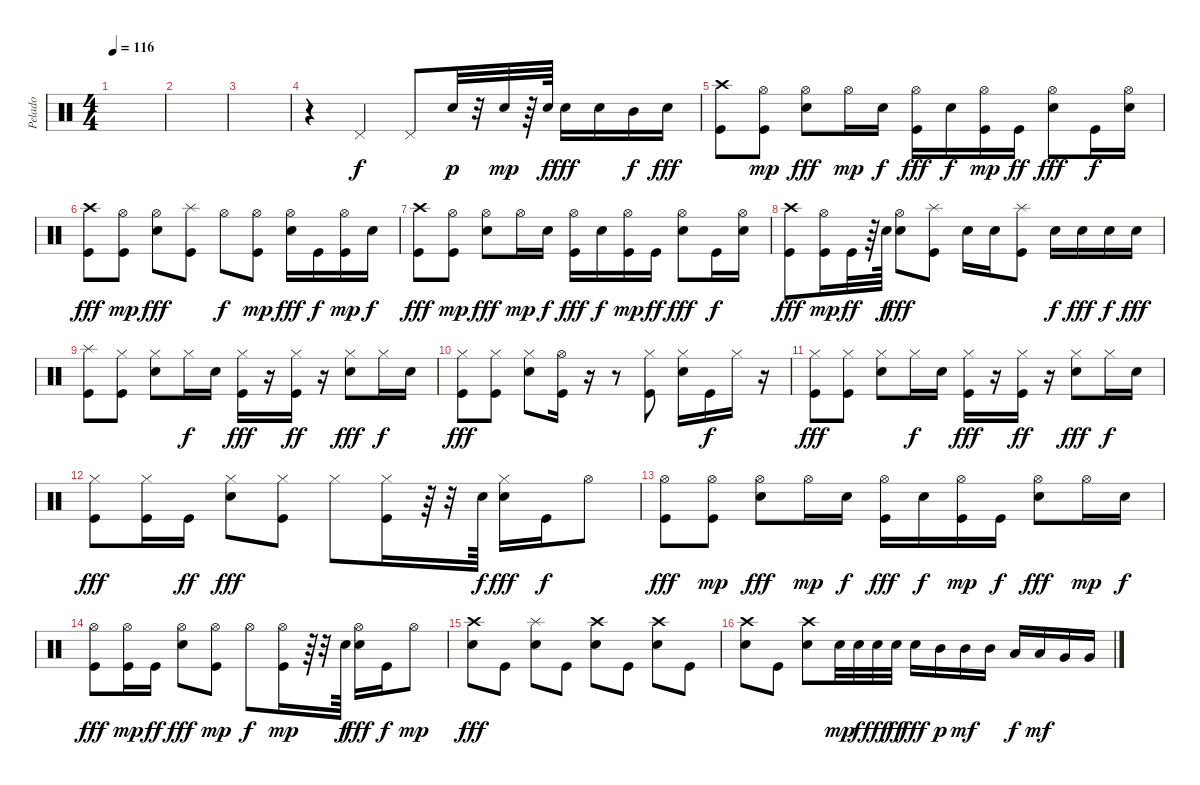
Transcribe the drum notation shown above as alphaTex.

\track ("Pelado" "Pelado") {instrument percussion}
\staff {score}
\articulation defaults
\ts (4 4)
\tempo 116
\clef neutral
\ks c
|
|
|
r.4 "Pedal Hi-Hat (hit)".4 "Pedal Hi-Hat (hit)".8 "Electric Snare (hit)".32{dy p} r.32 "Electric Snare (hit)".32{dy mp} r.64 "Electric Snare (hit)".64{dy f} "Electric Snare (hit)".16{dy fff} "Electric Snare (hit)".16 "Mid Tom (hit)".16{dy f} "Snare (hit) 2".16{dy fff} |
("Kick (hit)" "Crash high (hit)").8 ("Kick (hit)" "Hi-Hat (open)").8{dy mp} ("Electric Snare (hit)" "Hi-Hat (open)").8{dy fff} "Hi-Hat (open)".16{dy mp} "Electric Snare (hit)".16{dy f} ("Kick (hit)" "Hi-Hat (open)").16{dy fff} "Electric Snare (hit)".16{dy f} ("Kick (hit)" "Hi-Hat (open)").16{dy mp} "Kick (hit)".16{dy ff} ("Electric Snare (hit)" "Hi-Hat (open)").8{dy fff} "Kick (hit)".16{dy f} ("Electric Snare (hit)" "Hi-Hat (open)").16 |
("Kick (hit)" "Crash high (hit)").8{dy fff} ("Kick (hit)" "Hi-Hat (open)").8{dy mp} ("Electric Snare (hit)" "Hi-Hat (open)").8{dy fff} ("Kick (hit)" "Splash (hit)").8 "Hi-Hat (open)".8{dy f} ("Kick (hit)" "Hi-Hat (open)").8{dy mp} ("Electric Snare (hit)" "Hi-Hat (open)").16{dy fff} "Kick (hit)".16{dy f} ("Kick (hit)" "Hi-Hat (open)").16{dy mp} "Electric Snare (hit)".16{dy f} |
("Kick (hit)" "Crash high (hit)").8{dy fff} ("Kick (hit)" "Hi-Hat (open)").8{dy mp} ("Electric Snare (hit)" "Hi-Hat (open)").8{dy fff} "Hi-Hat (open)".16{dy mp} "Electric Snare (hit)".16{dy f} ("Kick (hit)" "Hi-Hat (open)").16{dy fff} "Electric Snare (hit)".16{dy f} ("Kick (hit)" "Hi-Hat (open)").16{dy mp} "Kick (hit)".16{dy ff} ("Electric Snare (hit)" "Hi-Hat (open)").8{dy fff} "Kick (hit)".16{dy f} ("Electric Snare (hit)" "Hi-Hat (open)").16 |
("Kick (hit)" "Crash high (hit)").8{dy fff} ("Kick (hit)" "Hi-Hat (open)").16{dy mp} "Kick (hit)".32{dy ff} r.64 "Electric Snare (hit)".64{dy f} ("Electric Snare (hit)" "Hi-Hat (open)").8{dy fff} ("Kick (hit)" "Splash (hit)").8 "Electric Snare (hit)".16 "Electric Snare (hit)".16 ("Kick (hit)" "Splash (hit)").8 "Electric Snare (hit)".16{dy f} "Electric Snare (hit)".16{dy fff} "Electric Snare (hit)".16{dy f} "Electric Snare (hit)".16{dy fff} |
("Kick (hit)" "Splash (hit)").8 ("Kick (hit)" "Hi-Hat (closed)").8 ("Electric Snare (hit)" "Hi-Hat (closed)").8 "Hi-Hat (closed)".16{dy f} "Electric Snare (hit)".16 ("Kick (hit)" "Hi-Hat (closed)").16{dy fff} r.16 ("Kick (hit)" "Hi-Hat (closed)").16{dy ff} r.16 ("Electric Snare (hit)" "Hi-Hat (closed)").8{dy fff} "Hi-Hat (closed)".16{dy f} "Electric Snare (hit)".16 |
("Kick (hit)" "Hi-Hat (closed)").8{dy fff} ("Kick (hit)" "Hi-Hat (closed)").8 ("Electric Snare (hit)" "Hi-Hat (closed)").8 ("Kick (hit)" "Hi-Hat (open)").16 r.16 r.8 ("Kick (hit)" "Hi-Hat (closed)").8 ("Electric Snare (hit)" "Hi-Hat (closed)").16 "Kick (hit)".16{dy f} "Hi-Hat (closed)".16 r.16 |
("Kick (hit)" "Hi-Hat (closed)").8{dy fff} ("Kick (hit)" "Hi-Hat (closed)").8 ("Electric Snare (hit)" "Hi-Hat (closed)").8 "Hi-Hat (closed)".16{dy f} "Electric Snare (hit)".16 ("Kick (hit)" "Hi-Hat (closed)").16{dy fff} r.16 ("Kick (hit)" "Hi-Hat (closed)").16{dy ff} r.16 ("Electric Snare (hit)" "Hi-Hat (closed)").8{dy fff} "Hi-Hat (closed)".16{dy f} "Electric Snare (hit)".16 |
("Kick (hit)" "Hi-Hat (closed)").8{dy fff} ("Kick (hit)" "Hi-Hat (closed)").16 "Kick (hit)".16{dy ff} ("Electric Snare (hit)" "Hi-Hat (closed)").8{dy fff} ("Kick (hit)" "Hi-Hat (closed)").8 "Hi-Hat (closed)".8 ("Kick (hit)" "Hi-Hat (closed)").16 r.64 r.32 "Electric Snare (hit)".64{dy f} ("Electric Snare (hit)" "Hi-Hat (closed)").16{dy fff} "Kick (hit)".16{dy f} "Hi-Hat (open)".8 |
("Kick (hit)" "Hi-Hat (open)").8{dy fff} ("Kick (hit)" "Hi-Hat (open)").8{dy mp} ("Electric Snare (hit)" "Hi-Hat (open)").8{dy fff} "Hi-Hat (open)".16{dy mp} "Electric Snare (hit)".16{dy f} ("Kick (hit)" "Hi-Hat (open)").16{dy fff} "Electric Snare (hit)".16{dy f} ("Kick (hit)" "Hi-Hat (open)").16{dy mp} "Kick (hit)".16{dy f} ("Electric Snare (hit)" "Hi-Hat (open)").8{dy fff} "Hi-Hat (open)".16{dy mp} "Electric Snare (hit)".16{dy f} |
("Kick (hit)" "Hi-Hat (open)").8{dy fff} ("Kick (hit)" "Hi-Hat (open)").16{dy mp} "Kick (hit)".16{dy ff} ("Electric Snare (hit)" "Hi-Hat (open)").8{dy fff} ("Kick (hit)" "Hi-Hat (open)").8{dy mp} "Hi-Hat (open)".8{dy f} ("Kick (hit)" "Hi-Hat (open)").16{dy mp} r.64 r.32 "Electric Snare (hit)".64{dy f} ("Electric Snare (hit)" "Hi-Hat (open)").16{dy fff} "Kick (hit)".16{dy f} "Hi-Hat (open)".8{dy mp} |
("Electric Snare (hit)" "Crash high (hit)").8{dy fff} "Kick (hit)".8 ("Electric Snare (hit)" "Splash (hit)").8 "Kick (hit)".8 ("Electric Snare (hit)" "Crash high (hit)").8 "Kick (hit)".8 ("Electric Snare (hit)" "Crash high (hit)").8 "Kick (hit)".8 |
("Electric Snare (hit)" "Crash high (hit)").8 "Kick (hit)".8 ("Electric Snare (hit)" "Crash high (hit)").8 "Electric Snare (hit)".32{dy mp} "Electric Snare (hit)".32{dy f} "Electric Snare (hit)".32{dy fff} "Electric Snare (hit)".32{dy ff} "Electric Snare (hit)".16{dy fff} "Mid Tom (hit)".16{dy p} "Mid Tom (hit)".16{dy mf} "Mid Tom (hit)".16 "Low Tom (hit)".16{dy f} "Low Tom (hit)".16{dy mf} "Very Low Tom (hit)".16 "Very Low Tom (hit)".16
